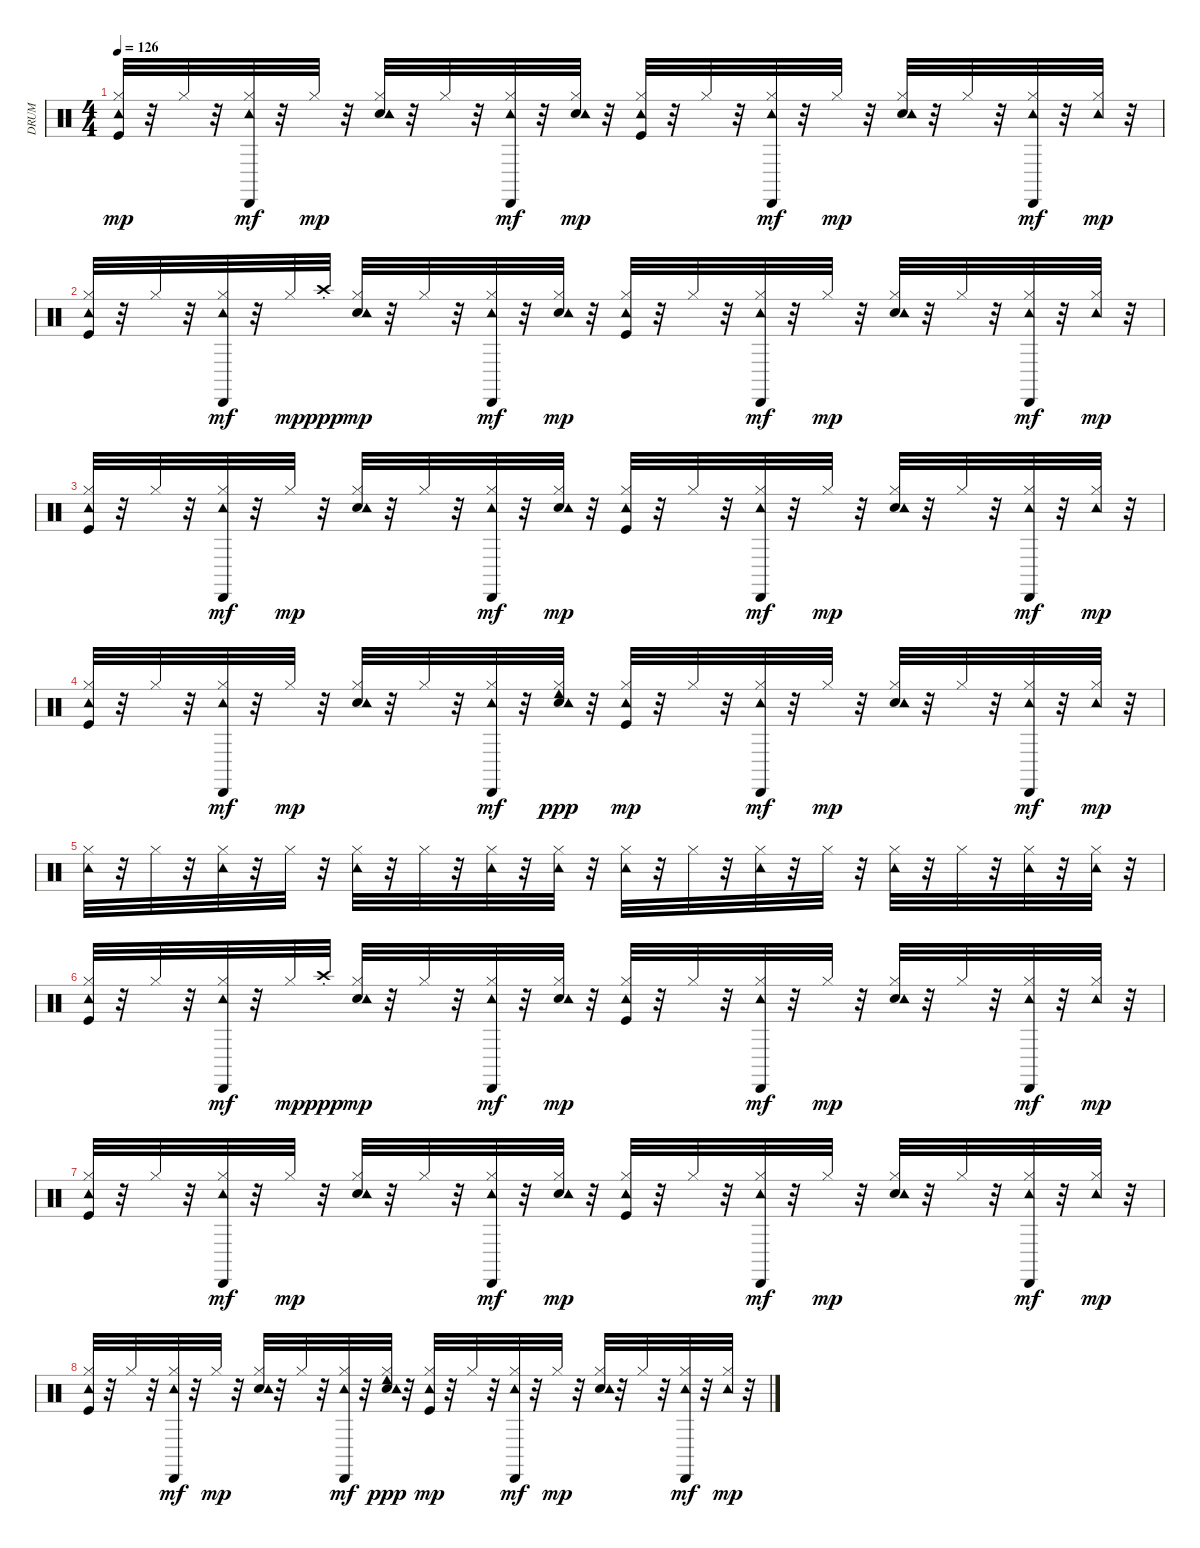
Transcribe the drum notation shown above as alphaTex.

\track ("DRUM" "DRUM") {instrument percussion}
\staff {score}
\articulation defaults
\ts (4 4)
\tempo 126
\clef neutral
\ks c
("Kick (hit)" "Hi-Hat (closed)" "Tambourine (hit)").32{dy mp} r.32 "Hi-Hat (closed)".32 r.32 ("Hi-Hat (closed)" "Tambourine (hit)" "Cabasa (hit)").32{dy mf} r.32 "Hi-Hat (closed)".32{dy mp} r.32 ("Snare (hit) 2" "Hi-Hat (closed)" "Tambourine (hit)").32 r.32 "Hi-Hat (closed)".32 r.32 ("Hi-Hat (closed)" "Tambourine (hit)" "Cabasa (hit)").32{dy mf} r.32 ("Snare (hit) 2" "Hi-Hat (closed)" "Tambourine (hit)").32{dy mp} r.32 ("Kick (hit)" "Hi-Hat (closed)" "Tambourine (hit)").32 r.32 "Hi-Hat (closed)".32 r.32 ("Hi-Hat (closed)" "Tambourine (hit)" "Cabasa (hit)").32{dy mf} r.32 "Hi-Hat (closed)".32{dy mp} r.32 ("Snare (hit) 2" "Hi-Hat (closed)" "Tambourine (hit)").32 r.32 "Hi-Hat (closed)".32 r.32 ("Hi-Hat (closed)" "Tambourine (hit)" "Cabasa (hit)").32{dy mf} r.32 ("Hi-Hat (closed)" "Tambourine (hit)").32{dy mp} r.32 |
("Kick (hit)" "Hi-Hat (closed)" "Tambourine (hit)").32 r.32 "Hi-Hat (closed)".32 r.32 ("Hi-Hat (closed)" "Tambourine (hit)" "Cabasa (hit)").32{dy mf} r.32 "Hi-Hat (closed)".32{dy mp} "Crash high (choke)".32{dy ppp} ("Snare (hit) 2" "Hi-Hat (closed)" "Tambourine (hit)").32{dy mp} r.32 "Hi-Hat (closed)".32 r.32 ("Hi-Hat (closed)" "Tambourine (hit)" "Cabasa (hit)").32{dy mf} r.32 ("Snare (hit) 2" "Hi-Hat (closed)" "Tambourine (hit)").32{dy mp} r.32 ("Kick (hit)" "Hi-Hat (closed)" "Tambourine (hit)").32 r.32 "Hi-Hat (closed)".32 r.32 ("Hi-Hat (closed)" "Tambourine (hit)" "Cabasa (hit)").32{dy mf} r.32 "Hi-Hat (closed)".32{dy mp} r.32 ("Snare (hit) 2" "Hi-Hat (closed)" "Tambourine (hit)").32 r.32 "Hi-Hat (closed)".32 r.32 ("Hi-Hat (closed)" "Tambourine (hit)" "Cabasa (hit)").32{dy mf} r.32 ("Hi-Hat (closed)" "Tambourine (hit)").32{dy mp} r.32 |
("Kick (hit)" "Hi-Hat (closed)" "Tambourine (hit)").32 r.32 "Hi-Hat (closed)".32 r.32 ("Hi-Hat (closed)" "Tambourine (hit)" "Cabasa (hit)").32{dy mf} r.32 "Hi-Hat (closed)".32{dy mp} r.32 ("Snare (hit) 2" "Hi-Hat (closed)" "Tambourine (hit)").32 r.32 "Hi-Hat (closed)".32 r.32 ("Hi-Hat (closed)" "Tambourine (hit)" "Cabasa (hit)").32{dy mf} r.32 ("Snare (hit) 2" "Hi-Hat (closed)" "Tambourine (hit)").32{dy mp} r.32 ("Kick (hit)" "Hi-Hat (closed)" "Tambourine (hit)").32 r.32 "Hi-Hat (closed)".32 r.32 ("Hi-Hat (closed)" "Tambourine (hit)" "Cabasa (hit)").32{dy mf} r.32 "Hi-Hat (closed)".32{dy mp} r.32 ("Snare (hit) 2" "Hi-Hat (closed)" "Tambourine (hit)").32 r.32 "Hi-Hat (closed)".32 r.32 ("Hi-Hat (closed)" "Tambourine (hit)" "Cabasa (hit)").32{dy mf} r.32 ("Hi-Hat (closed)" "Tambourine (hit)").32{dy mp} r.32 |
("Kick (hit)" "Hi-Hat (closed)" "Tambourine (hit)").32 r.32 "Hi-Hat (closed)".32 r.32 ("Hi-Hat (closed)" "Tambourine (hit)" "Cabasa (hit)").32{dy mf} r.32 "Hi-Hat (closed)".32{dy mp} r.32 ("Snare (hit) 2" "Hi-Hat (closed)" "Tambourine (hit)").32 r.32 "Hi-Hat (closed)".32 r.32 ("Hi-Hat (closed)" "Tambourine (hit)" "Cabasa (hit)").32{dy mf} r.32 ("Snare (hit) 2" "Hi-Hat (closed)" "Tambourine (hit)" "Cowbell low (hit)").32{dy ppp} r.32 ("Kick (hit)" "Hi-Hat (closed)" "Tambourine (hit)").32{dy mp} r.32 "Hi-Hat (closed)".32 r.32 ("Hi-Hat (closed)" "Tambourine (hit)" "Cabasa (hit)").32{dy mf} r.32 "Hi-Hat (closed)".32{dy mp} r.32 ("Snare (hit) 2" "Hi-Hat (closed)" "Tambourine (hit)").32 r.32 "Hi-Hat (closed)".32 r.32 ("Hi-Hat (closed)" "Tambourine (hit)" "Cabasa (hit)").32{dy mf} r.32 ("Hi-Hat (closed)" "Tambourine (hit)").32{dy mp} r.32 |
("Hi-Hat (closed)" "Tambourine (hit)").32 r.32 "Hi-Hat (closed)".32 r.32 ("Hi-Hat (closed)" "Tambourine (hit)").32 r.32 "Hi-Hat (closed)".32 r.32 ("Hi-Hat (closed)" "Tambourine (hit)").32 r.32 "Hi-Hat (closed)".32 r.32 ("Hi-Hat (closed)" "Tambourine (hit)").32 r.32 ("Hi-Hat (closed)" "Tambourine (hit)").32 r.32 ("Hi-Hat (closed)" "Tambourine (hit)").32 r.32 "Hi-Hat (closed)".32 r.32 ("Hi-Hat (closed)" "Tambourine (hit)").32 r.32 "Hi-Hat (closed)".32 r.32 ("Hi-Hat (closed)" "Tambourine (hit)").32 r.32 "Hi-Hat (closed)".32 r.32 ("Hi-Hat (closed)" "Tambourine (hit)").32 r.32 ("Hi-Hat (closed)" "Tambourine (hit)").32 r.32 |
("Kick (hit)" "Hi-Hat (closed)" "Tambourine (hit)").32 r.32 "Hi-Hat (closed)".32 r.32 ("Hi-Hat (closed)" "Tambourine (hit)" "Cabasa (hit)").32{dy mf} r.32 "Hi-Hat (closed)".32{dy mp} "Crash high (choke)".32{dy ppp} ("Snare (hit) 2" "Hi-Hat (closed)" "Tambourine (hit)").32{dy mp} r.32 "Hi-Hat (closed)".32 r.32 ("Hi-Hat (closed)" "Tambourine (hit)" "Cabasa (hit)").32{dy mf} r.32 ("Snare (hit) 2" "Hi-Hat (closed)" "Tambourine (hit)").32{dy mp} r.32 ("Kick (hit)" "Hi-Hat (closed)" "Tambourine (hit)").32 r.32 "Hi-Hat (closed)".32 r.32 ("Hi-Hat (closed)" "Tambourine (hit)" "Cabasa (hit)").32{dy mf} r.32 "Hi-Hat (closed)".32{dy mp} r.32 ("Snare (hit) 2" "Hi-Hat (closed)" "Tambourine (hit)").32 r.32 "Hi-Hat (closed)".32 r.32 ("Hi-Hat (closed)" "Tambourine (hit)" "Cabasa (hit)").32{dy mf} r.32 ("Hi-Hat (closed)" "Tambourine (hit)").32{dy mp} r.32 |
("Kick (hit)" "Hi-Hat (closed)" "Tambourine (hit)").32 r.32 "Hi-Hat (closed)".32 r.32 ("Hi-Hat (closed)" "Tambourine (hit)" "Cabasa (hit)").32{dy mf} r.32 "Hi-Hat (closed)".32{dy mp} r.32 ("Snare (hit) 2" "Hi-Hat (closed)" "Tambourine (hit)").32 r.32 "Hi-Hat (closed)".32 r.32 ("Hi-Hat (closed)" "Tambourine (hit)" "Cabasa (hit)").32{dy mf} r.32 ("Snare (hit) 2" "Hi-Hat (closed)" "Tambourine (hit)").32{dy mp} r.32 ("Kick (hit)" "Hi-Hat (closed)" "Tambourine (hit)").32 r.32 "Hi-Hat (closed)".32 r.32 ("Hi-Hat (closed)" "Tambourine (hit)" "Cabasa (hit)").32{dy mf} r.32 "Hi-Hat (closed)".32{dy mp} r.32 ("Snare (hit) 2" "Hi-Hat (closed)" "Tambourine (hit)").32 r.32 "Hi-Hat (closed)".32 r.32 ("Hi-Hat (closed)" "Tambourine (hit)" "Cabasa (hit)").32{dy mf} r.32 ("Hi-Hat (closed)" "Tambourine (hit)").32{dy mp} r.32 |
("Kick (hit)" "Hi-Hat (closed)" "Tambourine (hit)").32 r.32 "Hi-Hat (closed)".32 r.32 ("Hi-Hat (closed)" "Tambourine (hit)" "Cabasa (hit)").32{dy mf} r.32 "Hi-Hat (closed)".32{dy mp} r.32 ("Snare (hit) 2" "Hi-Hat (closed)" "Tambourine (hit)").32 r.32 "Hi-Hat (closed)".32 r.32 ("Hi-Hat (closed)" "Tambourine (hit)" "Cabasa (hit)").32{dy mf} r.32 ("Snare (hit) 2" "Hi-Hat (closed)" "Tambourine (hit)" "Cowbell low (hit)").32{dy ppp} r.32 ("Kick (hit)" "Hi-Hat (closed)" "Tambourine (hit)").32{dy mp} r.32 "Hi-Hat (closed)".32 r.32 ("Hi-Hat (closed)" "Tambourine (hit)" "Cabasa (hit)").32{dy mf} r.32 "Hi-Hat (closed)".32{dy mp} r.32 ("Snare (hit) 2" "Hi-Hat (closed)" "Tambourine (hit)").32 r.32 "Hi-Hat (closed)".32 r.32 ("Hi-Hat (closed)" "Tambourine (hit)" "Cabasa (hit)").32{dy mf} r.32 ("Hi-Hat (closed)" "Tambourine (hit)").32{dy mp} r.32
